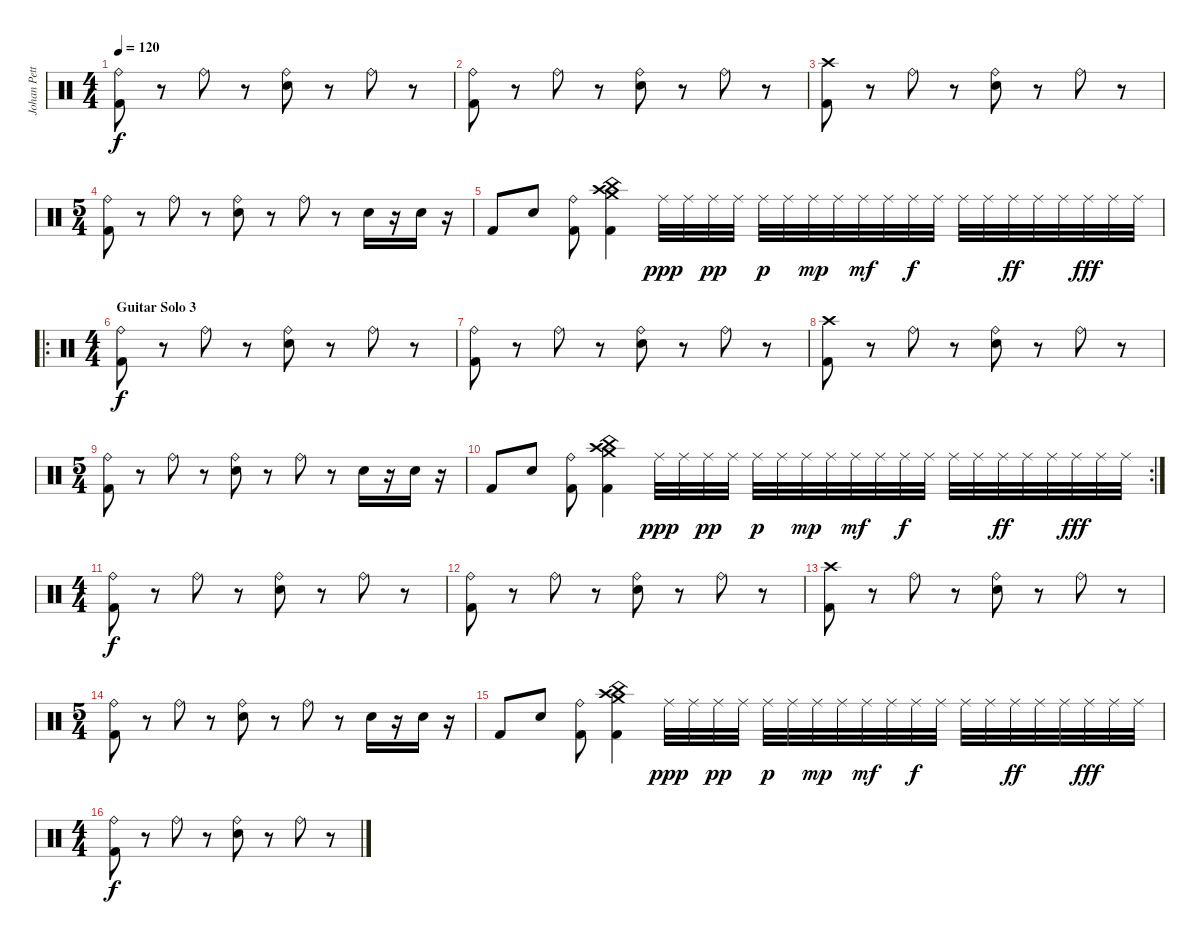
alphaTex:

\track ("Johan Petterson" "Johan Pett") {instrument percussion}
\staff {score}
\articulation defaults
\ts (4 4)
\tempo 120
\clef neutral
\ks c
("Ride (bell)" "Kick (hit) 2").8{dy f} r.8 "Ride (bell)".8 r.8 ("Ride (bell)" "Snare (hit) 2").8 r.8 "Ride (bell)".8 r.8 |
("Ride (bell)" "Kick (hit) 2").8 r.8 "Ride (bell)".8 r.8 ("Ride (bell)" "Snare (hit) 2").8 r.8 "Ride (bell)".8 r.8 |
("Crash high (hit)" "Kick (hit) 2").8 r.8 "Ride (bell)".8 r.8 ("Ride (bell)" "Snare (hit) 2").8 r.8 "Ride (bell)".8 r.8 |
\ts (5 4)
("Ride (bell)" "Kick (hit) 2").8 r.8 "Ride (bell)".8 r.8 ("Ride (bell)" "Snare (hit) 2").8 r.8 "Ride (bell)".8 r.8 "Snare (hit) 2".16 r.16 "Snare (hit) 2".16 r.16 |
"Kick (hit) 2".8 "Snare (hit) 2".8 ("Ride (bell)" "Kick (hit) 2").8 ("Crash high (hit)" "Crash medium (hit)" "China (hit)" "Kick (hit) 2").4 "Ride (middle)".32{dy ppp} "Ride (middle)".32 "Ride (middle)".32{dy pp} "Ride (middle)".32 "Ride (middle)".32{dy p} "Ride (middle)".32 "Ride (middle)".32{dy mp} "Ride (middle)".32 "Ride (middle)".32{dy mf} "Ride (middle)".32 "Ride (middle)".32{dy f} "Ride (middle)".32 "Ride (middle)".32 "Ride (middle)".32 "Ride (middle)".32{dy ff} "Ride (middle)".32 "Ride (middle)".32 "Ride (middle)".32{dy fff} "Ride (middle)".32 "Ride (middle)".32 |
\ro
\ts (4 4)
\section ("" "Guitar Solo 3")
("Ride (bell)" "Kick (hit) 2").8{dy f} r.8 "Ride (bell)".8 r.8 ("Ride (bell)" "Snare (hit) 2").8 r.8 "Ride (bell)".8 r.8 |
("Ride (bell)" "Kick (hit) 2").8 r.8 "Ride (bell)".8 r.8 ("Ride (bell)" "Snare (hit) 2").8 r.8 "Ride (bell)".8 r.8 |
("Crash high (hit)" "Kick (hit) 2").8 r.8 "Ride (bell)".8 r.8 ("Ride (bell)" "Snare (hit) 2").8 r.8 "Ride (bell)".8 r.8 |
\ts (5 4)
("Ride (bell)" "Kick (hit) 2").8 r.8 "Ride (bell)".8 r.8 ("Ride (bell)" "Snare (hit) 2").8 r.8 "Ride (bell)".8 r.8 "Snare (hit) 2".16 r.16 "Snare (hit) 2".16 r.16 |
\rc 2 "Kick (hit) 2".8 "Snare (hit) 2".8
("Ride (bell)" "Kick (hit) 2").8 ("Crash high (hit)" "Crash medium (hit)" "China (hit)" "Kick (hit) 2").4 "Ride (middle)".32{dy ppp} "Ride (middle)".32 "Ride (middle)".32{dy pp} "Ride (middle)".32 "Ride (middle)".32{dy p} "Ride (middle)".32 "Ride (middle)".32{dy mp} "Ride (middle)".32 "Ride (middle)".32{dy mf} "Ride (middle)".32 "Ride (middle)".32{dy f} "Ride (middle)".32 "Ride (middle)".32 "Ride (middle)".32 "Ride (middle)".32{dy ff} "Ride (middle)".32 "Ride (middle)".32 "Ride (middle)".32{dy fff} "Ride (middle)".32 "Ride (middle)".32 |
\ts (4 4)
("Ride (bell)" "Kick (hit) 2").8{dy f} r.8 "Ride (bell)".8 r.8 ("Ride (bell)" "Snare (hit) 2").8 r.8 "Ride (bell)".8 r.8 |
("Ride (bell)" "Kick (hit) 2").8 r.8 "Ride (bell)".8 r.8 ("Ride (bell)" "Snare (hit) 2").8 r.8 "Ride (bell)".8 r.8 |
("Crash high (hit)" "Kick (hit) 2").8 r.8 "Ride (bell)".8 r.8 ("Ride (bell)" "Snare (hit) 2").8 r.8 "Ride (bell)".8 r.8 |
\ts (5 4)
("Ride (bell)" "Kick (hit) 2").8 r.8 "Ride (bell)".8 r.8 ("Ride (bell)" "Snare (hit) 2").8 r.8 "Ride (bell)".8 r.8 "Snare (hit) 2".16 r.16 "Snare (hit) 2".16 r.16 |
"Kick (hit) 2".8 "Snare (hit) 2".8 ("Ride (bell)" "Kick (hit) 2").8 ("Crash high (hit)" "Crash medium (hit)" "China (hit)" "Kick (hit) 2").4 "Ride (middle)".32{dy ppp} "Ride (middle)".32 "Ride (middle)".32{dy pp} "Ride (middle)".32 "Ride (middle)".32{dy p} "Ride (middle)".32 "Ride (middle)".32{dy mp} "Ride (middle)".32 "Ride (middle)".32{dy mf} "Ride (middle)".32 "Ride (middle)".32{dy f} "Ride (middle)".32 "Ride (middle)".32 "Ride (middle)".32 "Ride (middle)".32{dy ff} "Ride (middle)".32 "Ride (middle)".32 "Ride (middle)".32{dy fff} "Ride (middle)".32 "Ride (middle)".32 |
\ts (4 4)
("Ride (bell)" "Kick (hit) 2").8{dy f volume 12} r.8 "Ride (bell)".8 r.8 ("Ride (bell)" "Snare (hit) 2").8 r.8 "Ride (bell)".8 r.8
